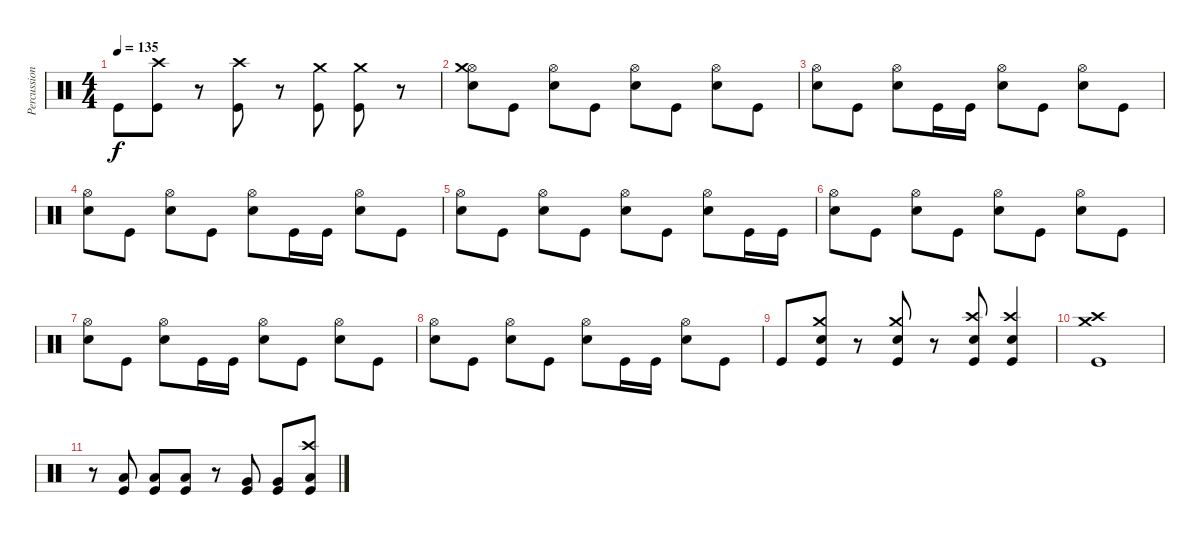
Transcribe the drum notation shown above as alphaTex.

\track ("Percussion" "Percussion") {instrument percussion}
\staff {score}
\articulation defaults
\ts (4 4)
\tempo 135
\clef neutral
\ks c "Kick (hit)".8{dy f}
("Crash high (hit)" "Kick (hit)").8 r.8 ("Crash high (hit)" "Kick (hit)").8 r.8 ("Crash medium (hit)" "Kick (hit)").8 ("Crash medium (hit)" "Kick (hit)").8 r.8 |
("Hi-Hat (open)" "Crash medium (hit)" "Snare (hit) 2").8 "Kick (hit)".8 ("Hi-Hat (open)" "Snare (hit) 2").8 "Kick (hit)".8 ("Hi-Hat (open)" "Snare (hit) 2").8 "Kick (hit)".8 ("Hi-Hat (open)" "Snare (hit) 2").8 "Kick (hit)".8 |
("Hi-Hat (open)" "Snare (hit) 2").8 "Kick (hit)".8 ("Hi-Hat (open)" "Snare (hit) 2").8 "Kick (hit)".16 "Kick (hit)".16 ("Hi-Hat (open)" "Snare (hit) 2").8 "Kick (hit)".8 ("Hi-Hat (open)" "Snare (hit) 2").8 "Kick (hit)".8 |
("Hi-Hat (open)" "Snare (hit) 2").8 "Kick (hit)".8 ("Hi-Hat (open)" "Snare (hit) 2").8 "Kick (hit)".8 ("Hi-Hat (open)" "Snare (hit) 2").8 "Kick (hit)".16 "Kick (hit)".16 ("Hi-Hat (open)" "Snare (hit) 2").8 "Kick (hit)".8 |
("Hi-Hat (open)" "Snare (hit) 2").8 "Kick (hit)".8 ("Hi-Hat (open)" "Snare (hit) 2").8 "Kick (hit)".8 ("Hi-Hat (open)" "Snare (hit) 2").8 "Kick (hit)".8 ("Hi-Hat (open)" "Snare (hit) 2").8 "Kick (hit)".16 "Kick (hit)".16 |
("Hi-Hat (open)" "Snare (hit) 2").8 "Kick (hit)".8 ("Hi-Hat (open)" "Snare (hit) 2").8 "Kick (hit)".8 ("Hi-Hat (open)" "Snare (hit) 2").8 "Kick (hit)".8 ("Hi-Hat (open)" "Snare (hit) 2").8 "Kick (hit)".8 |
("Hi-Hat (open)" "Snare (hit) 2").8 "Kick (hit)".8 ("Hi-Hat (open)" "Snare (hit) 2").8 "Kick (hit)".16 "Kick (hit)".16 ("Hi-Hat (open)" "Snare (hit) 2").8 "Kick (hit)".8 ("Hi-Hat (open)" "Snare (hit) 2").8 "Kick (hit)".8 |
("Hi-Hat (open)" "Snare (hit) 2").8 "Kick (hit)".8 ("Hi-Hat (open)" "Snare (hit) 2").8 "Kick (hit)".8 ("Hi-Hat (open)" "Snare (hit) 2").8 "Kick (hit)".16 "Kick (hit)".16 ("Hi-Hat (open)" "Snare (hit) 2").8 "Kick (hit)".8 |
"Kick (hit)".8 ("Crash medium (hit)" "Kick (hit)" "Snare (hit) 2").8 r.8 ("Crash medium (hit)" "Kick (hit)" "Snare (hit) 2").8 r.8 ("Crash high (hit)" "Kick (hit)" "Snare (hit) 2").8 ("Crash high (hit)" "Kick (hit)" "Snare (hit) 2").4 |
("Crash high (hit)" "Crash medium (hit)" "Kick (hit)").1 |
r.8 ("Kick (hit)" "Low Tom (hit)").8 ("Kick (hit)" "Low Tom (hit)").8 ("Kick (hit)" "Low Tom (hit)").8 r.8 ("Kick (hit)" "Very Low Tom (hit)").8 ("Kick (hit)" "Very Low Tom (hit)").8 ("Crash high (hit)" "Kick (hit)" "Low Floor Tom (hit)").8
